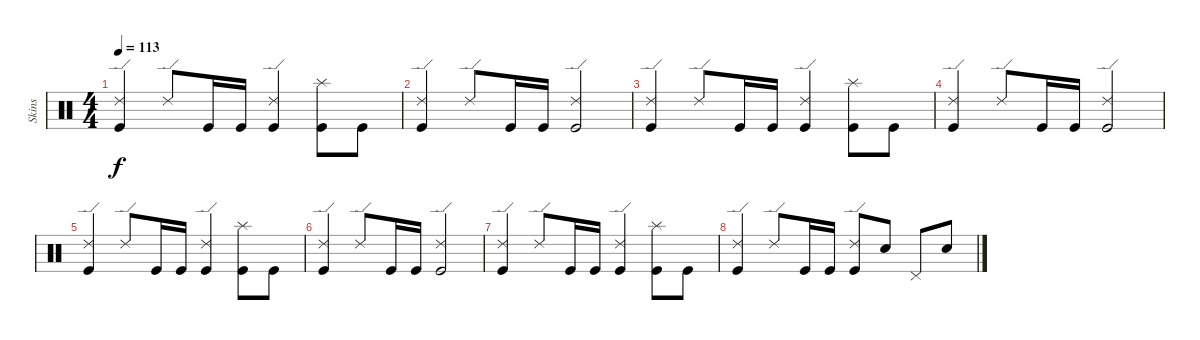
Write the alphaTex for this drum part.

\track ("Skins" "Skins") {instrument percussion}
\staff {score}
\articulation defaults
\ts (4 4)
\tempo 113
\clef neutral
\ks c
("Ride (edge) 2" "Kick (hit)").4{dy f} "Ride (edge) 2".8 "Kick (hit)".16 "Kick (hit)".16 ("Ride (edge) 2" "Kick (hit)").4 ("Splash (hit)" "Kick (hit)").8 "Kick (hit)".8 |
("Ride (edge) 2" "Kick (hit)").4 "Ride (edge) 2".8 "Kick (hit)".16 "Kick (hit)".16 ("Ride (edge) 2" "Kick (hit)").2 |
("Ride (edge) 2" "Kick (hit)").4 "Ride (edge) 2".8 "Kick (hit)".16 "Kick (hit)".16 ("Ride (edge) 2" "Kick (hit)").4 ("Splash (hit)" "Kick (hit)").8 "Kick (hit)".8 |
("Ride (edge) 2" "Kick (hit)").4 "Ride (edge) 2".8 "Kick (hit)".16 "Kick (hit)".16 ("Ride (edge) 2" "Kick (hit)").2 |
("Ride (edge) 2" "Kick (hit)").4 "Ride (edge) 2".8 "Kick (hit)".16 "Kick (hit)".16 ("Ride (edge) 2" "Kick (hit)").4 ("Splash (hit)" "Kick (hit)").8 "Kick (hit)".8 |
("Ride (edge) 2" "Kick (hit)").4 "Ride (edge) 2".8 "Kick (hit)".16 "Kick (hit)".16 ("Ride (edge) 2" "Kick (hit)").2 |
("Ride (edge) 2" "Kick (hit)").4 "Ride (edge) 2".8 "Kick (hit)".16 "Kick (hit)".16 ("Ride (edge) 2" "Kick (hit)").4 ("Splash (hit)" "Kick (hit)").8 "Kick (hit)".8 |
("Ride (edge) 2" "Kick (hit)").4 "Ride (edge) 2".8 "Kick (hit)".16 "Kick (hit)".16 ("Ride (edge) 2" "Kick (hit)").8 "Electric Snare (hit)".8 "Pedal Hi-Hat (hit)".8 "Electric Snare (hit)".8
